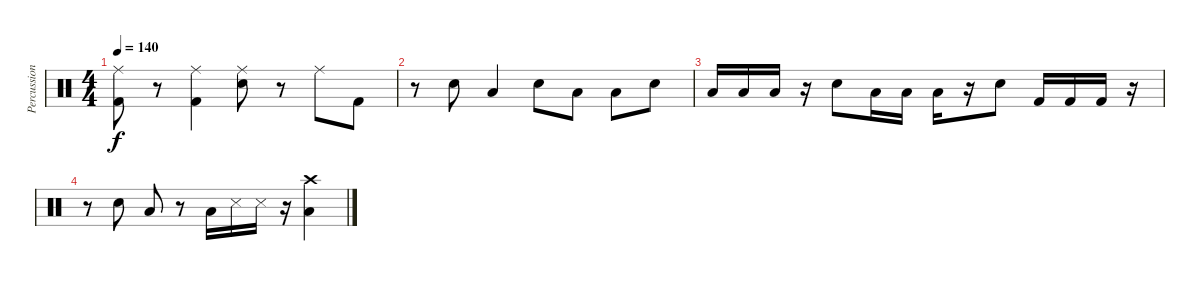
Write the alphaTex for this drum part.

\track ("Percussion" "Percussion") {instrument percussion}
\staff {score}
\articulation defaults
\ts (4 4)
\tempo 140
\clef neutral
\ks c
("Kick (hit) 2" "Ride (middle)").8{dy f} r.8 ("Kick (hit) 2" "Ride (middle)").4 ("Snare (hit) 2" "Ride (middle)").8 r.8 "Ride (middle)".8 "Kick (hit) 2".8 |
r.8 "Snare (hit) 2".8 "Low Floor Tom (hit)".4 "Snare (hit) 2".8 "Low Floor Tom (hit)".8 "Low Floor Tom (hit)".8 "Snare (hit) 2".8 |
"Low Tom (hit)".16 "Low Tom (hit)".16 "Low Tom (hit)".16 r.16 "Snare (hit) 2".8 "Low Floor Tom (hit)".16 "Low Floor Tom (hit)".16 "Low Floor Tom (hit)".16 r.16 "Snare (hit) 2".8 "Kick (hit) 2".16 "Kick (hit) 2".16 "Kick (hit) 2".16 r.16 |
r.8 "Snare (hit) 2".8 "Low Floor Tom (hit)".8 r.8 "Low Tom (hit)".16 "Snare (side stick) 3".16 "Snare (side stick) 3".16 r.16 ("Low Floor Tom (hit)" "Crash high (hit)").4
